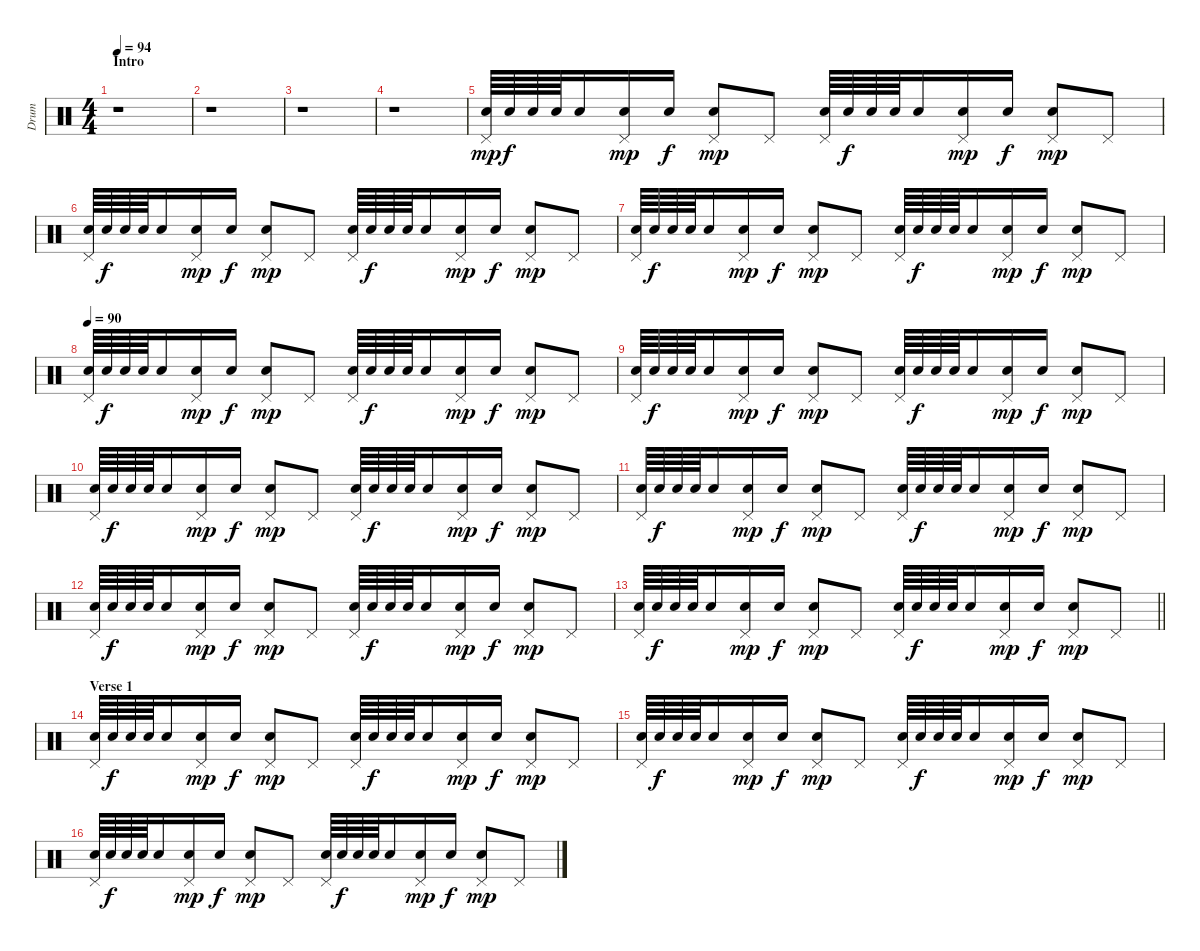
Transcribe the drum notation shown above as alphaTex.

\track ("Drum" "Drum") {instrument percussion}
\staff {score}
\articulation defaults
\ts (4 4)
\section ("" "Intro")
\tempo 94
\clef neutral
\ks c
r.1{dy mp} |
r.1 |
r.1 |
r.1 |
("Snare (hit) 2" "Pedal Hi-Hat (hit)").64{volume 3} "Snare (hit) 2".64{dy f} "Snare (hit) 2".64 "Snare (hit) 2".64 "Snare (hit) 2".16 ("Snare (hit) 2" "Pedal Hi-Hat (hit)").16{dy mp} "Snare (hit) 2".16{dy f} ("Snare (hit) 2" "Pedal Hi-Hat (hit)").8{dy mp} "Pedal Hi-Hat (hit)".8 ("Snare (hit) 2" "Pedal Hi-Hat (hit)").64 "Snare (hit) 2".64{dy f} "Snare (hit) 2".64 "Snare (hit) 2".64 "Snare (hit) 2".16 ("Snare (hit) 2" "Pedal Hi-Hat (hit)").16{dy mp} "Snare (hit) 2".16{dy f} ("Snare (hit) 2" "Pedal Hi-Hat (hit)").8{dy mp} "Pedal Hi-Hat (hit)".8 |
("Snare (hit) 2" "Pedal Hi-Hat (hit)").64 "Snare (hit) 2".64{dy f} "Snare (hit) 2".64 "Snare (hit) 2".64 "Snare (hit) 2".16 ("Snare (hit) 2" "Pedal Hi-Hat (hit)").16{dy mp} "Snare (hit) 2".16{dy f} ("Snare (hit) 2" "Pedal Hi-Hat (hit)").8{dy mp} "Pedal Hi-Hat (hit)".8 ("Snare (hit) 2" "Pedal Hi-Hat (hit)").64 "Snare (hit) 2".64{dy f} "Snare (hit) 2".64 "Snare (hit) 2".64 "Snare (hit) 2".16 ("Snare (hit) 2" "Pedal Hi-Hat (hit)").16{dy mp} "Snare (hit) 2".16{dy f} ("Snare (hit) 2" "Pedal Hi-Hat (hit)").8{dy mp} "Pedal Hi-Hat (hit)".8 |
("Snare (hit) 2" "Pedal Hi-Hat (hit)").64 "Snare (hit) 2".64{dy f} "Snare (hit) 2".64 "Snare (hit) 2".64 "Snare (hit) 2".16 ("Snare (hit) 2" "Pedal Hi-Hat (hit)").16{dy mp} "Snare (hit) 2".16{dy f} ("Snare (hit) 2" "Pedal Hi-Hat (hit)").8{dy mp} "Pedal Hi-Hat (hit)".8 ("Snare (hit) 2" "Pedal Hi-Hat (hit)").64 "Snare (hit) 2".64{dy f} "Snare (hit) 2".64 "Snare (hit) 2".64 "Snare (hit) 2".16 ("Snare (hit) 2" "Pedal Hi-Hat (hit)").16{dy mp} "Snare (hit) 2".16{dy f} ("Snare (hit) 2" "Pedal Hi-Hat (hit)").8{dy mp} "Pedal Hi-Hat (hit)".8 |
\tempo 90
("Snare (hit) 2" "Pedal Hi-Hat (hit)").64 "Snare (hit) 2".64{dy f} "Snare (hit) 2".64 "Snare (hit) 2".64 "Snare (hit) 2".16 ("Snare (hit) 2" "Pedal Hi-Hat (hit)").16{dy mp} "Snare (hit) 2".16{dy f} ("Snare (hit) 2" "Pedal Hi-Hat (hit)").8{dy mp} "Pedal Hi-Hat (hit)".8 ("Snare (hit) 2" "Pedal Hi-Hat (hit)").64 "Snare (hit) 2".64{dy f} "Snare (hit) 2".64 "Snare (hit) 2".64 "Snare (hit) 2".16 ("Snare (hit) 2" "Pedal Hi-Hat (hit)").16{dy mp} "Snare (hit) 2".16{dy f} ("Snare (hit) 2" "Pedal Hi-Hat (hit)").8{dy mp} "Pedal Hi-Hat (hit)".8 |
("Snare (hit) 2" "Pedal Hi-Hat (hit)").64 "Snare (hit) 2".64{dy f} "Snare (hit) 2".64 "Snare (hit) 2".64 "Snare (hit) 2".16 ("Snare (hit) 2" "Pedal Hi-Hat (hit)").16{dy mp} "Snare (hit) 2".16{dy f} ("Snare (hit) 2" "Pedal Hi-Hat (hit)").8{dy mp} "Pedal Hi-Hat (hit)".8 ("Snare (hit) 2" "Pedal Hi-Hat (hit)").64 "Snare (hit) 2".64{dy f} "Snare (hit) 2".64 "Snare (hit) 2".64 "Snare (hit) 2".16 ("Snare (hit) 2" "Pedal Hi-Hat (hit)").16{dy mp} "Snare (hit) 2".16{dy f} ("Snare (hit) 2" "Pedal Hi-Hat (hit)").8{dy mp} "Pedal Hi-Hat (hit)".8 |
("Snare (hit) 2" "Pedal Hi-Hat (hit)").64 "Snare (hit) 2".64{dy f} "Snare (hit) 2".64 "Snare (hit) 2".64 "Snare (hit) 2".16 ("Snare (hit) 2" "Pedal Hi-Hat (hit)").16{dy mp} "Snare (hit) 2".16{dy f} ("Snare (hit) 2" "Pedal Hi-Hat (hit)").8{dy mp} "Pedal Hi-Hat (hit)".8 ("Snare (hit) 2" "Pedal Hi-Hat (hit)").64 "Snare (hit) 2".64{dy f} "Snare (hit) 2".64 "Snare (hit) 2".64 "Snare (hit) 2".16 ("Snare (hit) 2" "Pedal Hi-Hat (hit)").16{dy mp} "Snare (hit) 2".16{dy f} ("Snare (hit) 2" "Pedal Hi-Hat (hit)").8{dy mp} "Pedal Hi-Hat (hit)".8 |
("Snare (hit) 2" "Pedal Hi-Hat (hit)").64 "Snare (hit) 2".64{dy f} "Snare (hit) 2".64 "Snare (hit) 2".64 "Snare (hit) 2".16 ("Snare (hit) 2" "Pedal Hi-Hat (hit)").16{dy mp} "Snare (hit) 2".16{dy f} ("Snare (hit) 2" "Pedal Hi-Hat (hit)").8{dy mp} "Pedal Hi-Hat (hit)".8 ("Snare (hit) 2" "Pedal Hi-Hat (hit)").64 "Snare (hit) 2".64{dy f} "Snare (hit) 2".64 "Snare (hit) 2".64 "Snare (hit) 2".16 ("Snare (hit) 2" "Pedal Hi-Hat (hit)").16{dy mp} "Snare (hit) 2".16{dy f} ("Snare (hit) 2" "Pedal Hi-Hat (hit)").8{dy mp} "Pedal Hi-Hat (hit)".8 |
("Snare (hit) 2" "Pedal Hi-Hat (hit)").64 "Snare (hit) 2".64{dy f} "Snare (hit) 2".64 "Snare (hit) 2".64 "Snare (hit) 2".16 ("Snare (hit) 2" "Pedal Hi-Hat (hit)").16{dy mp} "Snare (hit) 2".16{dy f} ("Snare (hit) 2" "Pedal Hi-Hat (hit)").8{dy mp} "Pedal Hi-Hat (hit)".8 ("Snare (hit) 2" "Pedal Hi-Hat (hit)").64 "Snare (hit) 2".64{dy f} "Snare (hit) 2".64 "Snare (hit) 2".64 "Snare (hit) 2".16 ("Snare (hit) 2" "Pedal Hi-Hat (hit)").16{dy mp} "Snare (hit) 2".16{dy f} ("Snare (hit) 2" "Pedal Hi-Hat (hit)").8{dy mp} "Pedal Hi-Hat (hit)".8 |
\barLineRight lightlight
("Snare (hit) 2" "Pedal Hi-Hat (hit)").64 "Snare (hit) 2".64{dy f} "Snare (hit) 2".64 "Snare (hit) 2".64 "Snare (hit) 2".16 ("Snare (hit) 2" "Pedal Hi-Hat (hit)").16{dy mp} "Snare (hit) 2".16{dy f} ("Snare (hit) 2" "Pedal Hi-Hat (hit)").8{dy mp} "Pedal Hi-Hat (hit)".8 ("Snare (hit) 2" "Pedal Hi-Hat (hit)").64 "Snare (hit) 2".64{dy f} "Snare (hit) 2".64 "Snare (hit) 2".64 "Snare (hit) 2".16 ("Snare (hit) 2" "Pedal Hi-Hat (hit)").16{dy mp} "Snare (hit) 2".16{dy f} ("Snare (hit) 2" "Pedal Hi-Hat (hit)").8{dy mp} "Pedal Hi-Hat (hit)".8 |
\section ("" "Verse 1")
("Snare (hit) 2" "Pedal Hi-Hat (hit)").64 "Snare (hit) 2".64{dy f} "Snare (hit) 2".64 "Snare (hit) 2".64 "Snare (hit) 2".16 ("Snare (hit) 2" "Pedal Hi-Hat (hit)").16{dy mp} "Snare (hit) 2".16{dy f} ("Snare (hit) 2" "Pedal Hi-Hat (hit)").8{dy mp} "Pedal Hi-Hat (hit)".8 ("Snare (hit) 2" "Pedal Hi-Hat (hit)").64 "Snare (hit) 2".64{dy f} "Snare (hit) 2".64 "Snare (hit) 2".64 "Snare (hit) 2".16 ("Snare (hit) 2" "Pedal Hi-Hat (hit)").16{dy mp} "Snare (hit) 2".16{dy f} ("Snare (hit) 2" "Pedal Hi-Hat (hit)").8{dy mp} "Pedal Hi-Hat (hit)".8 |
("Snare (hit) 2" "Pedal Hi-Hat (hit)").64 "Snare (hit) 2".64{dy f} "Snare (hit) 2".64 "Snare (hit) 2".64 "Snare (hit) 2".16 ("Snare (hit) 2" "Pedal Hi-Hat (hit)").16{dy mp} "Snare (hit) 2".16{dy f} ("Snare (hit) 2" "Pedal Hi-Hat (hit)").8{dy mp} "Pedal Hi-Hat (hit)".8 ("Snare (hit) 2" "Pedal Hi-Hat (hit)").64 "Snare (hit) 2".64{dy f} "Snare (hit) 2".64 "Snare (hit) 2".64 "Snare (hit) 2".16 ("Snare (hit) 2" "Pedal Hi-Hat (hit)").16{dy mp} "Snare (hit) 2".16{dy f} ("Snare (hit) 2" "Pedal Hi-Hat (hit)").8{dy mp} "Pedal Hi-Hat (hit)".8 |
("Snare (hit) 2" "Pedal Hi-Hat (hit)").64 "Snare (hit) 2".64{dy f} "Snare (hit) 2".64 "Snare (hit) 2".64 "Snare (hit) 2".16 ("Snare (hit) 2" "Pedal Hi-Hat (hit)").16{dy mp} "Snare (hit) 2".16{dy f} ("Snare (hit) 2" "Pedal Hi-Hat (hit)").8{dy mp} "Pedal Hi-Hat (hit)".8 ("Snare (hit) 2" "Pedal Hi-Hat (hit)").64 "Snare (hit) 2".64{dy f} "Snare (hit) 2".64 "Snare (hit) 2".64 "Snare (hit) 2".16 ("Snare (hit) 2" "Pedal Hi-Hat (hit)").16{dy mp} "Snare (hit) 2".16{dy f} ("Snare (hit) 2" "Pedal Hi-Hat (hit)").8{dy mp} "Pedal Hi-Hat (hit)".8
